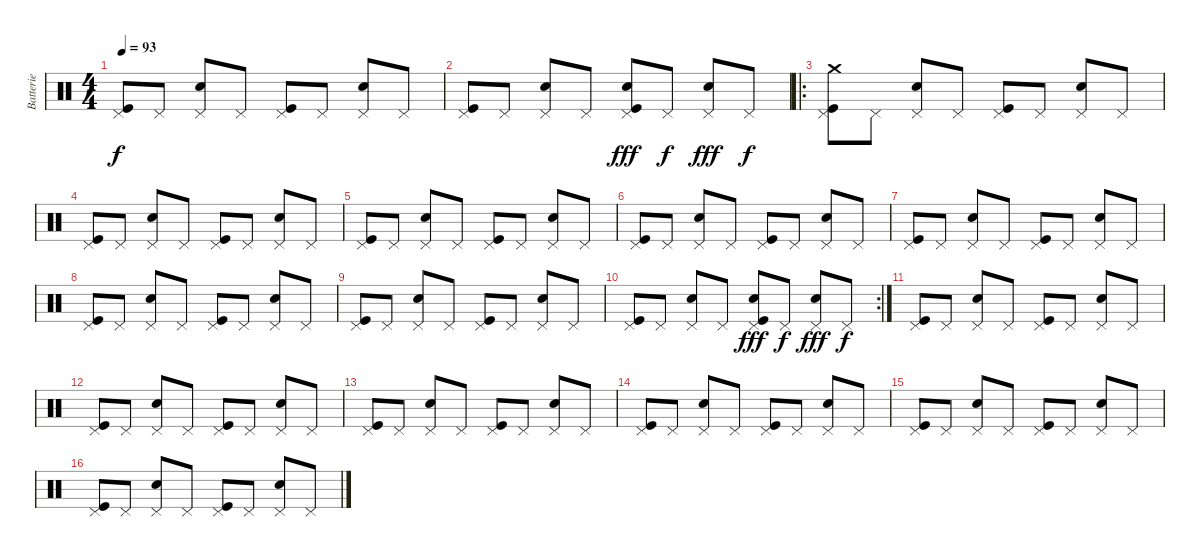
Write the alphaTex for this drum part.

\track ("Batterie" "Batterie") {instrument percussion}
\staff {score}
\articulation defaults
\ts (4 4)
\tempo 93
\clef neutral
\ks c
("Kick (hit)" "Pedal Hi-Hat (hit)").8{dy f} "Pedal Hi-Hat (hit)".8 ("Snare (hit) 2" "Pedal Hi-Hat (hit)").8 "Pedal Hi-Hat (hit)".8 ("Kick (hit)" "Pedal Hi-Hat (hit)").8 "Pedal Hi-Hat (hit)".8 ("Snare (hit) 2" "Pedal Hi-Hat (hit)").8 "Pedal Hi-Hat (hit)".8 |
("Kick (hit)" "Pedal Hi-Hat (hit)").8 "Pedal Hi-Hat (hit)".8 ("Snare (hit) 2" "Pedal Hi-Hat (hit)").8 "Pedal Hi-Hat (hit)".8 ("Snare (hit) 2" "Kick (hit)" "Pedal Hi-Hat (hit)").8{dy fff} "Pedal Hi-Hat (hit)".8{dy f} ("Snare (hit) 2" "Pedal Hi-Hat (hit)").8{dy fff} "Pedal Hi-Hat (hit)".8{dy f} |
\ro
("Crash medium (hit)" "Kick (hit)" "Pedal Hi-Hat (hit)").8 "Pedal Hi-Hat (hit)".8 ("Snare (hit) 2" "Pedal Hi-Hat (hit)").8 "Pedal Hi-Hat (hit)".8 ("Kick (hit)" "Pedal Hi-Hat (hit)").8 "Pedal Hi-Hat (hit)".8 ("Snare (hit) 2" "Pedal Hi-Hat (hit)").8 "Pedal Hi-Hat (hit)".8 |
("Kick (hit)" "Pedal Hi-Hat (hit)").8 "Pedal Hi-Hat (hit)".8 ("Snare (hit) 2" "Pedal Hi-Hat (hit)").8 "Pedal Hi-Hat (hit)".8 ("Kick (hit)" "Pedal Hi-Hat (hit)").8 "Pedal Hi-Hat (hit)".8 ("Snare (hit) 2" "Pedal Hi-Hat (hit)").8 "Pedal Hi-Hat (hit)".8 |
("Kick (hit)" "Pedal Hi-Hat (hit)").8 "Pedal Hi-Hat (hit)".8 ("Snare (hit) 2" "Pedal Hi-Hat (hit)").8 "Pedal Hi-Hat (hit)".8 ("Kick (hit)" "Pedal Hi-Hat (hit)").8 "Pedal Hi-Hat (hit)".8 ("Snare (hit) 2" "Pedal Hi-Hat (hit)").8 "Pedal Hi-Hat (hit)".8 |
("Kick (hit)" "Pedal Hi-Hat (hit)").8 "Pedal Hi-Hat (hit)".8 ("Snare (hit) 2" "Pedal Hi-Hat (hit)").8 "Pedal Hi-Hat (hit)".8 ("Kick (hit)" "Pedal Hi-Hat (hit)").8 "Pedal Hi-Hat (hit)".8 ("Snare (hit) 2" "Pedal Hi-Hat (hit)").8 "Pedal Hi-Hat (hit)".8 |
("Kick (hit)" "Pedal Hi-Hat (hit)").8 "Pedal Hi-Hat (hit)".8 ("Snare (hit) 2" "Pedal Hi-Hat (hit)").8 "Pedal Hi-Hat (hit)".8 ("Kick (hit)" "Pedal Hi-Hat (hit)").8 "Pedal Hi-Hat (hit)".8 ("Snare (hit) 2" "Pedal Hi-Hat (hit)").8 "Pedal Hi-Hat (hit)".8 |
("Kick (hit)" "Pedal Hi-Hat (hit)").8 "Pedal Hi-Hat (hit)".8 ("Snare (hit) 2" "Pedal Hi-Hat (hit)").8 "Pedal Hi-Hat (hit)".8 ("Kick (hit)" "Pedal Hi-Hat (hit)").8 "Pedal Hi-Hat (hit)".8 ("Snare (hit) 2" "Pedal Hi-Hat (hit)").8 "Pedal Hi-Hat (hit)".8 |
("Kick (hit)" "Pedal Hi-Hat (hit)").8 "Pedal Hi-Hat (hit)".8 ("Snare (hit) 2" "Pedal Hi-Hat (hit)").8 "Pedal Hi-Hat (hit)".8 ("Kick (hit)" "Pedal Hi-Hat (hit)").8 "Pedal Hi-Hat (hit)".8 ("Snare (hit) 2" "Pedal Hi-Hat (hit)").8 "Pedal Hi-Hat (hit)".8 |
\rc 2
("Kick (hit)" "Pedal Hi-Hat (hit)").8 "Pedal Hi-Hat (hit)".8 ("Snare (hit) 2" "Pedal Hi-Hat (hit)").8 "Pedal Hi-Hat (hit)".8 ("Snare (hit) 2" "Kick (hit)" "Pedal Hi-Hat (hit)").8{dy fff} "Pedal Hi-Hat (hit)".8{dy f} ("Snare (hit) 2" "Pedal Hi-Hat (hit)").8{dy fff} "Pedal Hi-Hat (hit)".8{dy f} |
("Kick (hit)" "Pedal Hi-Hat (hit)").8 "Pedal Hi-Hat (hit)".8 ("Snare (hit) 2" "Pedal Hi-Hat (hit)").8 "Pedal Hi-Hat (hit)".8 ("Kick (hit)" "Pedal Hi-Hat (hit)").8 "Pedal Hi-Hat (hit)".8 ("Snare (hit) 2" "Pedal Hi-Hat (hit)").8 "Pedal Hi-Hat (hit)".8 |
("Kick (hit)" "Pedal Hi-Hat (hit)").8 "Pedal Hi-Hat (hit)".8 ("Snare (hit) 2" "Pedal Hi-Hat (hit)").8 "Pedal Hi-Hat (hit)".8 ("Kick (hit)" "Pedal Hi-Hat (hit)").8 "Pedal Hi-Hat (hit)".8 ("Snare (hit) 2" "Pedal Hi-Hat (hit)").8 "Pedal Hi-Hat (hit)".8 |
("Kick (hit)" "Pedal Hi-Hat (hit)").8 "Pedal Hi-Hat (hit)".8 ("Snare (hit) 2" "Pedal Hi-Hat (hit)").8 "Pedal Hi-Hat (hit)".8 ("Kick (hit)" "Pedal Hi-Hat (hit)").8 "Pedal Hi-Hat (hit)".8 ("Snare (hit) 2" "Pedal Hi-Hat (hit)").8 "Pedal Hi-Hat (hit)".8 |
("Kick (hit)" "Pedal Hi-Hat (hit)").8 "Pedal Hi-Hat (hit)".8 ("Snare (hit) 2" "Pedal Hi-Hat (hit)").8 "Pedal Hi-Hat (hit)".8 ("Kick (hit)" "Pedal Hi-Hat (hit)").8 "Pedal Hi-Hat (hit)".8 ("Snare (hit) 2" "Pedal Hi-Hat (hit)").8 "Pedal Hi-Hat (hit)".8 |
("Kick (hit)" "Pedal Hi-Hat (hit)").8 "Pedal Hi-Hat (hit)".8 ("Snare (hit) 2" "Pedal Hi-Hat (hit)").8 "Pedal Hi-Hat (hit)".8 ("Kick (hit)" "Pedal Hi-Hat (hit)").8 "Pedal Hi-Hat (hit)".8 ("Snare (hit) 2" "Pedal Hi-Hat (hit)").8 "Pedal Hi-Hat (hit)".8 |
("Kick (hit)" "Pedal Hi-Hat (hit)").8 "Pedal Hi-Hat (hit)".8 ("Snare (hit) 2" "Pedal Hi-Hat (hit)").8 "Pedal Hi-Hat (hit)".8 ("Kick (hit)" "Pedal Hi-Hat (hit)").8 "Pedal Hi-Hat (hit)".8 ("Snare (hit) 2" "Pedal Hi-Hat (hit)").8 "Pedal Hi-Hat (hit)".8
